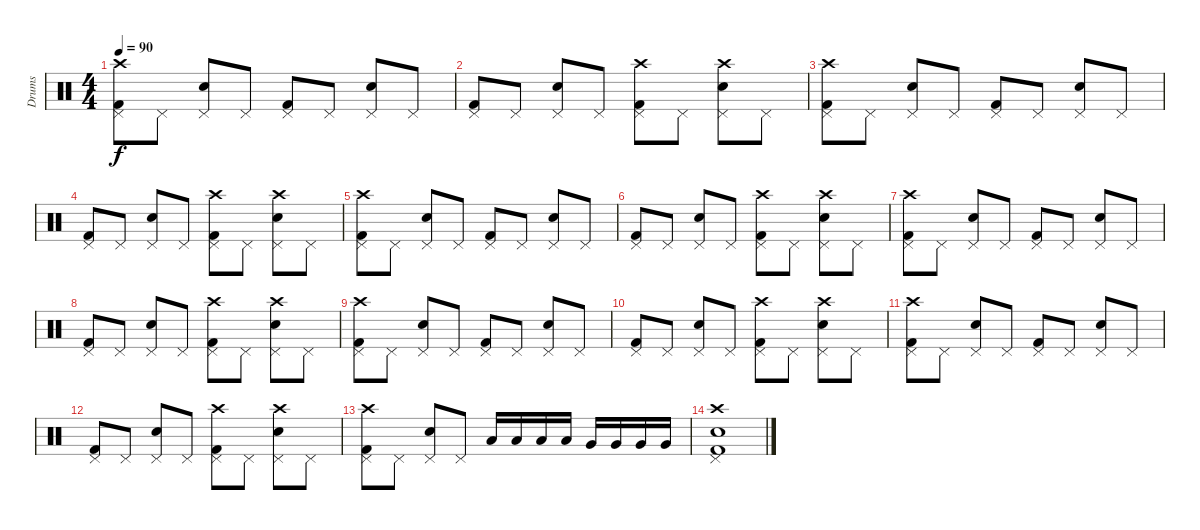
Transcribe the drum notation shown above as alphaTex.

\track ("Drums" "Drums") {instrument percussion}
\staff {score}
\articulation defaults
\ts (4 4)
\tempo 90
\clef neutral
\ks c
("Crash high (hit)" "Kick (hit) 2" "Pedal Hi-Hat (hit)").8{dy f} "Pedal Hi-Hat (hit)".8 ("Pedal Hi-Hat (hit)" "Snare (hit) 2").8 "Pedal Hi-Hat (hit)".8 ("Pedal Hi-Hat (hit)" "Kick (hit) 2").8 "Pedal Hi-Hat (hit)".8 ("Pedal Hi-Hat (hit)" "Snare (hit) 2").8 "Pedal Hi-Hat (hit)".8 |
("Pedal Hi-Hat (hit)" "Kick (hit) 2").8 "Pedal Hi-Hat (hit)".8 ("Pedal Hi-Hat (hit)" "Snare (hit) 2").8 "Pedal Hi-Hat (hit)".8 ("Pedal Hi-Hat (hit)" "Kick (hit) 2" "Crash high (hit)").8 "Pedal Hi-Hat (hit)".8 ("Pedal Hi-Hat (hit)" "Snare (hit) 2" "Crash high (hit)").8 "Pedal Hi-Hat (hit)".8 |
("Crash high (hit)" "Kick (hit) 2" "Pedal Hi-Hat (hit)").8 "Pedal Hi-Hat (hit)".8 ("Pedal Hi-Hat (hit)" "Snare (hit) 2").8 "Pedal Hi-Hat (hit)".8 ("Pedal Hi-Hat (hit)" "Kick (hit) 2").8 "Pedal Hi-Hat (hit)".8 ("Pedal Hi-Hat (hit)" "Snare (hit) 2").8 "Pedal Hi-Hat (hit)".8 |
("Pedal Hi-Hat (hit)" "Kick (hit) 2").8 "Pedal Hi-Hat (hit)".8 ("Pedal Hi-Hat (hit)" "Snare (hit) 2").8 "Pedal Hi-Hat (hit)".8 ("Pedal Hi-Hat (hit)" "Kick (hit) 2" "Crash high (hit)").8 "Pedal Hi-Hat (hit)".8 ("Pedal Hi-Hat (hit)" "Snare (hit) 2" "Crash high (hit)").8 "Pedal Hi-Hat (hit)".8 |
("Crash high (hit)" "Kick (hit) 2" "Pedal Hi-Hat (hit)").8 "Pedal Hi-Hat (hit)".8 ("Pedal Hi-Hat (hit)" "Snare (hit) 2").8 "Pedal Hi-Hat (hit)".8 ("Pedal Hi-Hat (hit)" "Kick (hit) 2").8 "Pedal Hi-Hat (hit)".8 ("Pedal Hi-Hat (hit)" "Snare (hit) 2").8 "Pedal Hi-Hat (hit)".8 |
("Pedal Hi-Hat (hit)" "Kick (hit) 2").8 "Pedal Hi-Hat (hit)".8 ("Pedal Hi-Hat (hit)" "Snare (hit) 2").8 "Pedal Hi-Hat (hit)".8 ("Pedal Hi-Hat (hit)" "Kick (hit) 2" "Crash high (hit)").8 "Pedal Hi-Hat (hit)".8 ("Pedal Hi-Hat (hit)" "Snare (hit) 2" "Crash high (hit)").8 "Pedal Hi-Hat (hit)".8 |
("Crash high (hit)" "Kick (hit) 2" "Pedal Hi-Hat (hit)").8 "Pedal Hi-Hat (hit)".8 ("Pedal Hi-Hat (hit)" "Snare (hit) 2").8 "Pedal Hi-Hat (hit)".8 ("Pedal Hi-Hat (hit)" "Kick (hit) 2").8 "Pedal Hi-Hat (hit)".8 ("Pedal Hi-Hat (hit)" "Snare (hit) 2").8 "Pedal Hi-Hat (hit)".8 |
("Pedal Hi-Hat (hit)" "Kick (hit) 2").8 "Pedal Hi-Hat (hit)".8 ("Pedal Hi-Hat (hit)" "Snare (hit) 2").8 "Pedal Hi-Hat (hit)".8 ("Pedal Hi-Hat (hit)" "Kick (hit) 2" "Crash high (hit)").8 "Pedal Hi-Hat (hit)".8 ("Pedal Hi-Hat (hit)" "Snare (hit) 2" "Crash high (hit)").8 "Pedal Hi-Hat (hit)".8 |
("Crash high (hit)" "Kick (hit) 2" "Pedal Hi-Hat (hit)").8 "Pedal Hi-Hat (hit)".8 ("Pedal Hi-Hat (hit)" "Snare (hit) 2").8 "Pedal Hi-Hat (hit)".8 ("Pedal Hi-Hat (hit)" "Kick (hit) 2").8 "Pedal Hi-Hat (hit)".8 ("Pedal Hi-Hat (hit)" "Snare (hit) 2").8 "Pedal Hi-Hat (hit)".8 |
("Pedal Hi-Hat (hit)" "Kick (hit) 2").8 "Pedal Hi-Hat (hit)".8 ("Pedal Hi-Hat (hit)" "Snare (hit) 2").8 "Pedal Hi-Hat (hit)".8 ("Pedal Hi-Hat (hit)" "Kick (hit) 2" "Crash high (hit)").8 "Pedal Hi-Hat (hit)".8 ("Pedal Hi-Hat (hit)" "Snare (hit) 2" "Crash high (hit)").8 "Pedal Hi-Hat (hit)".8 |
("Crash high (hit)" "Kick (hit) 2" "Pedal Hi-Hat (hit)").8 "Pedal Hi-Hat (hit)".8 ("Pedal Hi-Hat (hit)" "Snare (hit) 2").8 "Pedal Hi-Hat (hit)".8 ("Pedal Hi-Hat (hit)" "Kick (hit) 2").8 "Pedal Hi-Hat (hit)".8 ("Pedal Hi-Hat (hit)" "Snare (hit) 2").8 "Pedal Hi-Hat (hit)".8 |
("Pedal Hi-Hat (hit)" "Kick (hit) 2").8 "Pedal Hi-Hat (hit)".8 ("Pedal Hi-Hat (hit)" "Snare (hit) 2").8 "Pedal Hi-Hat (hit)".8 ("Pedal Hi-Hat (hit)" "Kick (hit) 2" "Crash high (hit)").8 "Pedal Hi-Hat (hit)".8 ("Pedal Hi-Hat (hit)" "Snare (hit) 2" "Crash high (hit)").8 "Pedal Hi-Hat (hit)".8 |
("Crash high (hit)" "Kick (hit) 2" "Pedal Hi-Hat (hit)").8 "Pedal Hi-Hat (hit)".8 ("Pedal Hi-Hat (hit)" "Snare (hit) 2").8 "Pedal Hi-Hat (hit)".8 "Low Tom (hit)".16 "Low Tom (hit)".16 "Low Tom (hit)".16 "Low Tom (hit)".16 "Very Low Tom (hit)".16 "Very Low Tom (hit)".16 "Very Low Tom (hit)".16 "Very Low Tom (hit)".16 |
("Crash high (hit)" "Snare (hit) 2" "Pedal Hi-Hat (hit)" "Kick (hit) 2").1
